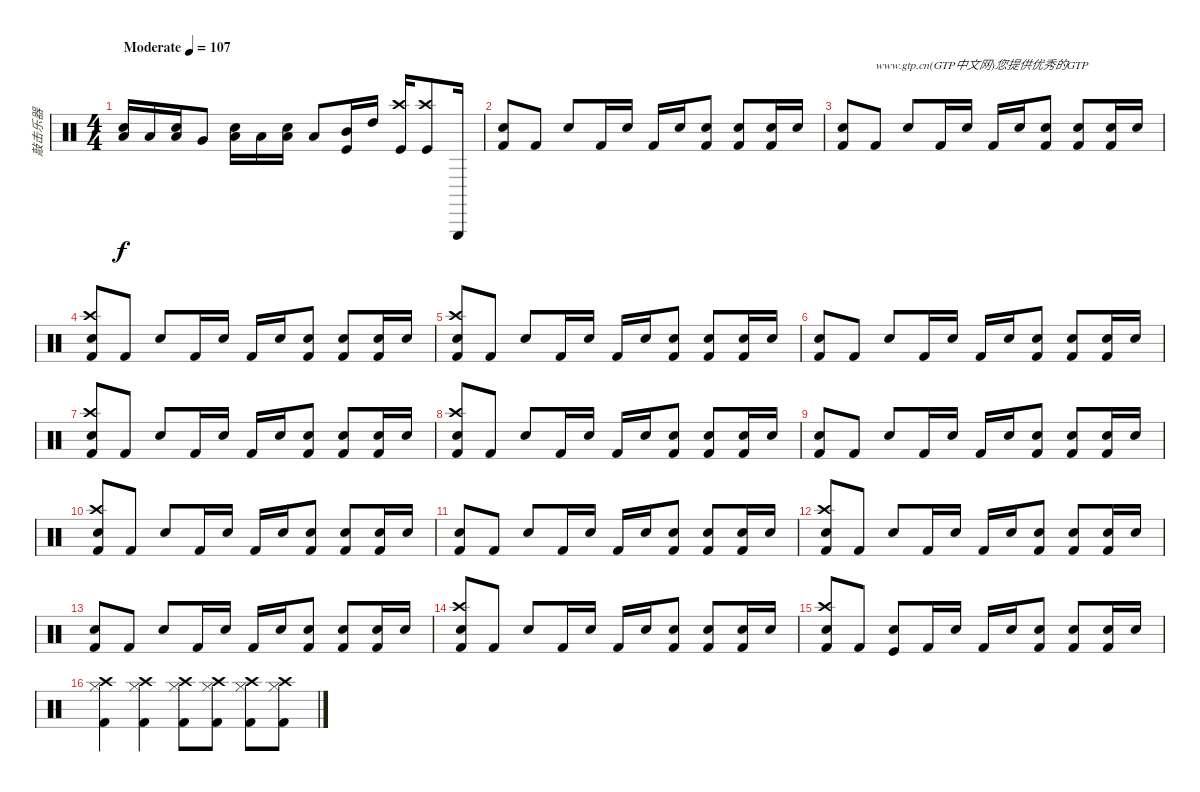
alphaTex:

\track ("敲击乐器" "敲击乐器") {instrument percussion}
\staff {score}
\articulation defaults
\ts (4 4)
\tempo (107 "Moderate")
\clef neutral
\ks c
("Low Tom (hit)" "Snare (hit) 2").16{dy f} "Low Tom (hit)".16 ("Low Tom (hit)" "Snare (hit) 2").16 "Very Low Tom (hit)".8 ("Low Tom (hit)" "Snare (hit) 2").16 "Low Tom (hit)".16 ("Low Tom (hit)" "Snare (hit) 2").16 "Low Tom (hit)".8 ("Mid Tom (hit)" "Kick (hit)").16 "High Tom (hit)".16 ("Crash high (hit)" "Kick (hit)").16 ("Crash high (hit)" "Kick (hit)").8 "Triangle (hit)".16 |
("Snare (hit) 2" "Kick (hit) 2").8 "Kick (hit) 2".8 "Electric Snare (hit)".8 "Kick (hit) 2".16 "Electric Snare (hit)".16 "Kick (hit) 2".16 "Electric Snare (hit)".16 ("Snare (hit) 2" "Kick (hit) 2").8 ("Electric Snare (hit)" "Kick (hit) 2").8 ("Snare (hit) 2" "Kick (hit) 2").16 "Snare (hit) 2".16 |
("Snare (hit) 2" "Kick (hit) 2").8 "Kick (hit) 2".8{txt "www.gtp.cn(GTP中文网)您提供优秀的GTP"} "Electric Snare (hit)".8 "Kick (hit) 2".16 "Electric Snare (hit)".16 "Kick (hit) 2".16 "Electric Snare (hit)".16 ("Snare (hit) 2" "Kick (hit) 2").8 ("Electric Snare (hit)" "Kick (hit) 2").8 ("Snare (hit) 2" "Kick (hit) 2").16 "Snare (hit) 2".16 |
("Crash high (hit)" "Snare (hit) 2" "Kick (hit) 2").8 "Kick (hit) 2".8 "Electric Snare (hit)".8 "Kick (hit) 2".16 "Electric Snare (hit)".16 "Kick (hit) 2".16 "Electric Snare (hit)".16 ("Snare (hit) 2" "Kick (hit) 2").8 ("Electric Snare (hit)" "Kick (hit) 2").8 ("Snare (hit) 2" "Kick (hit) 2").16 "Snare (hit) 2".16 |
("Crash high (hit)" "Snare (hit) 2" "Kick (hit) 2").8 "Kick (hit) 2".8 "Electric Snare (hit)".8 "Kick (hit) 2".16 "Electric Snare (hit)".16 "Kick (hit) 2".16 "Electric Snare (hit)".16 ("Snare (hit) 2" "Kick (hit) 2").8 ("Electric Snare (hit)" "Kick (hit) 2").8 ("Snare (hit) 2" "Kick (hit) 2").16 "Snare (hit) 2".16 |
("Snare (hit) 2" "Kick (hit) 2").8 "Kick (hit) 2".8 "Electric Snare (hit)".8 "Kick (hit) 2".16 "Electric Snare (hit)".16 "Kick (hit) 2".16 "Electric Snare (hit)".16 ("Snare (hit) 2" "Kick (hit) 2").8 ("Electric Snare (hit)" "Kick (hit) 2").8 ("Snare (hit) 2" "Kick (hit) 2").16 "Snare (hit) 2".16 |
("Crash high (hit)" "Snare (hit) 2" "Kick (hit) 2").8 "Kick (hit) 2".8 "Electric Snare (hit)".8 "Kick (hit) 2".16 "Electric Snare (hit)".16 "Kick (hit) 2".16 "Electric Snare (hit)".16 ("Snare (hit) 2" "Kick (hit) 2").8 ("Electric Snare (hit)" "Kick (hit) 2").8 ("Snare (hit) 2" "Kick (hit) 2").16 "Snare (hit) 2".16 |
("Crash high (hit)" "Snare (hit) 2" "Kick (hit) 2").8 "Kick (hit) 2".8 "Electric Snare (hit)".8 "Kick (hit) 2".16 "Electric Snare (hit)".16 "Kick (hit) 2".16 "Electric Snare (hit)".16 ("Snare (hit) 2" "Kick (hit) 2").8 ("Electric Snare (hit)" "Kick (hit) 2").8 ("Snare (hit) 2" "Kick (hit) 2").16 "Snare (hit) 2".16 |
("Snare (hit) 2" "Kick (hit) 2").8 "Kick (hit) 2".8 "Electric Snare (hit)".8 "Kick (hit) 2".16 "Electric Snare (hit)".16 "Kick (hit) 2".16 "Electric Snare (hit)".16 ("Snare (hit) 2" "Kick (hit) 2").8 ("Electric Snare (hit)" "Kick (hit) 2").8 ("Snare (hit) 2" "Kick (hit) 2").16 "Snare (hit) 2".16 |
("Crash high (hit)" "Snare (hit) 2" "Kick (hit) 2").8 "Kick (hit) 2".8 "Electric Snare (hit)".8 "Kick (hit) 2".16 "Electric Snare (hit)".16 "Kick (hit) 2".16 "Electric Snare (hit)".16 ("Snare (hit) 2" "Kick (hit) 2").8 ("Electric Snare (hit)" "Kick (hit) 2").8 ("Snare (hit) 2" "Kick (hit) 2").16 "Snare (hit) 2".16 |
("Snare (hit) 2" "Kick (hit) 2").8 "Kick (hit) 2".8 "Electric Snare (hit)".8 "Kick (hit) 2".16 "Electric Snare (hit)".16 "Kick (hit) 2".16 "Electric Snare (hit)".16 ("Snare (hit) 2" "Kick (hit) 2").8 ("Electric Snare (hit)" "Kick (hit) 2").8 ("Snare (hit) 2" "Kick (hit) 2").16 "Snare (hit) 2".16 |
("Crash high (hit)" "Snare (hit) 2" "Kick (hit) 2").8 "Kick (hit) 2".8 "Electric Snare (hit)".8 "Kick (hit) 2".16 "Electric Snare (hit)".16 "Kick (hit) 2".16 "Electric Snare (hit)".16 ("Snare (hit) 2" "Kick (hit) 2").8 ("Electric Snare (hit)" "Kick (hit) 2").8 ("Snare (hit) 2" "Kick (hit) 2").16 "Snare (hit) 2".16 |
("Snare (hit) 2" "Kick (hit) 2").8 "Kick (hit) 2".8 "Electric Snare (hit)".8 "Kick (hit) 2".16 "Electric Snare (hit)".16 "Kick (hit) 2".16 "Electric Snare (hit)".16 ("Snare (hit) 2" "Kick (hit) 2").8 ("Electric Snare (hit)" "Kick (hit) 2").8 ("Snare (hit) 2" "Kick (hit) 2").16 "Snare (hit) 2".16 |
("Crash high (hit)" "Snare (hit) 2" "Kick (hit) 2").8 "Kick (hit) 2".8 "Electric Snare (hit)".8 "Kick (hit) 2".16 "Electric Snare (hit)".16 "Kick (hit) 2".16 "Electric Snare (hit)".16 ("Snare (hit) 2" "Kick (hit) 2").8 ("Electric Snare (hit)" "Kick (hit) 2").8 ("Snare (hit) 2" "Kick (hit) 2").16 "Snare (hit) 2".16 |
("Crash high (hit)" "Snare (hit) 2" "Kick (hit) 2").8 "Kick (hit) 2".8 ("Electric Snare (hit)" "Kick (hit)").8 "Kick (hit) 2".16 "Electric Snare (hit)".16 "Kick (hit) 2".16 "Electric Snare (hit)".16 ("Snare (hit) 2" "Kick (hit) 2").8 ("Electric Snare (hit)" "Kick (hit) 2").8 ("Snare (hit) 2" "Kick (hit) 2").16 "Snare (hit) 2".16 |
("Crash high (hit)" "Hi-Hat (closed)" "Kick (hit) 2").4 ("Crash high (hit)" "Hi-Hat (closed)" "Kick (hit) 2").4 ("Crash high (hit)" "Hi-Hat (closed)" "Kick (hit) 2").8 ("Crash high (hit)" "Hi-Hat (closed)" "Kick (hit) 2").8 ("Crash high (hit)" "Hi-Hat (closed)" "Kick (hit) 2").8 ("Crash high (hit)" "Hi-Hat (closed)" "Kick (hit) 2").8
